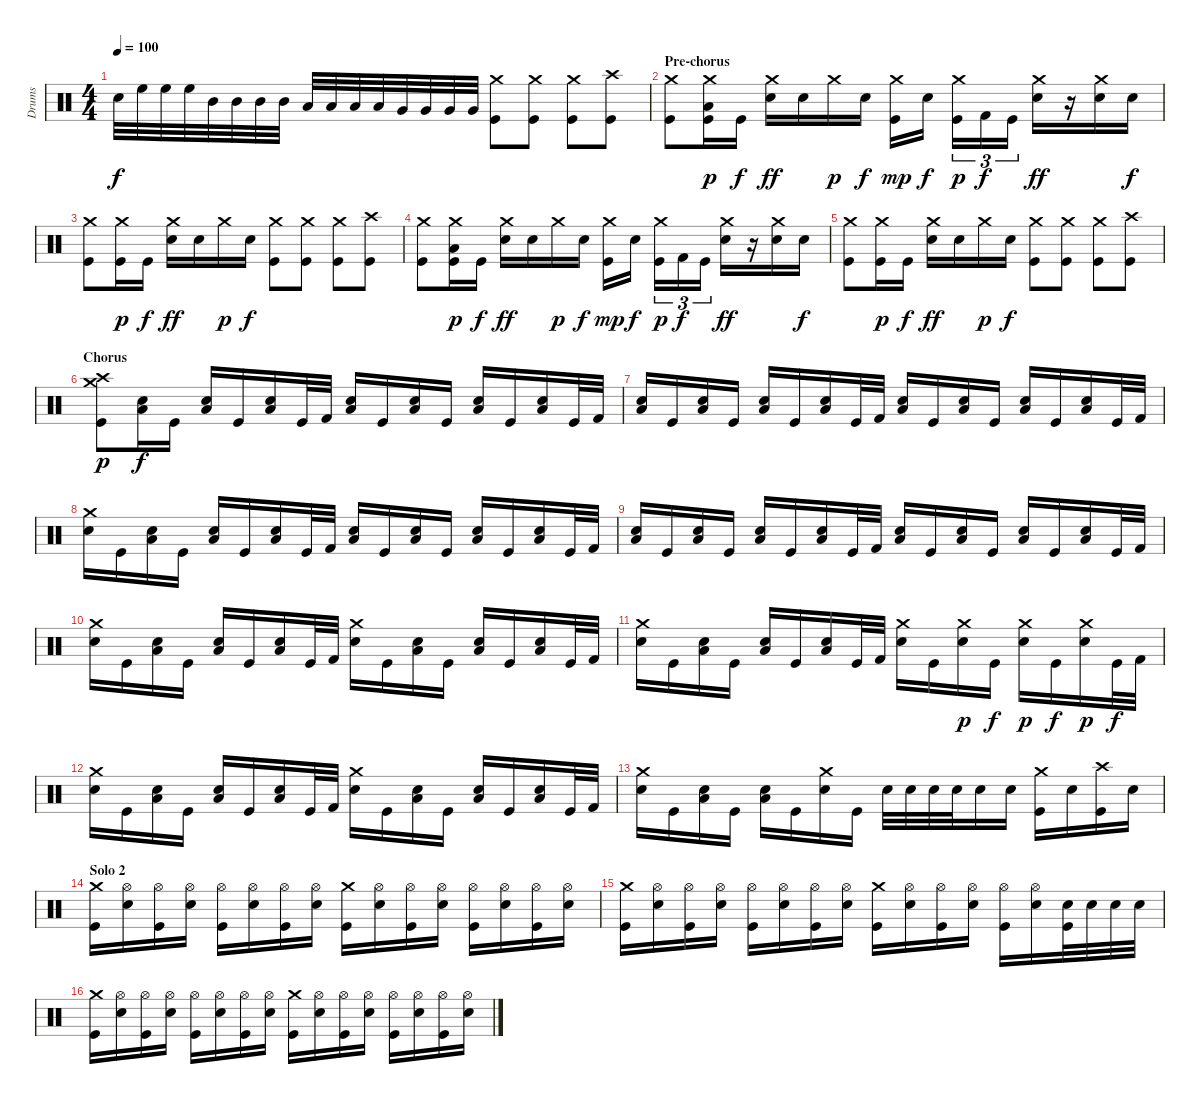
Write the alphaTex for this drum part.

\track ("Drums" "Drums") {instrument percussion}
\staff {score}
\articulation defaults
\ts (4 4)
\tempo 100
\clef neutral
\ks c "Electric Snare (hit)".32{dy f} "High Floor Tom (hit)".32 "High Floor Tom (hit)".32 "High Floor Tom (hit)".32 "Mid Tom (hit)".32 "Mid Tom (hit)".32 "Mid Tom (hit)".32 "Mid Tom (hit)".32 "Low Tom (hit)".32 "Low Tom (hit)".32 "Low Tom (hit)".32 "Low Tom (hit)".32 "Very Low Tom (hit)".32 "Very Low Tom (hit)".32 "Very Low Tom (hit)".32 "Very Low Tom (hit)".32
("Crash medium (hit)" "Kick (hit)").8 ("Crash medium (hit)" "Kick (hit)").8 ("Crash medium (hit)" "Kick (hit)").8 ("Crash high (hit)" "Kick (hit)").8 |
\section ("" "Pre-chorus")
("Crash medium (hit)" "Kick (hit)").8 ("Crash medium (hit)" "Low Tom (hit)" "Kick (hit)").16{dy p} "Kick (hit)".16{dy f} ("Crash medium (hit)" "Electric Snare (hit)").16{dy ff} "Electric Snare (hit)".16 "Crash medium (hit)".16{dy p} "Electric Snare (hit)".16{dy f} ("Crash medium (hit)" "Kick (hit)").16{dy mp} "Electric Snare (hit)".16{dy f} ("Crash medium (hit)" "Kick (hit)").16{tu (3 2) dy p} "Kick (hit) 2".16{tu (3 2) dy f} "Kick (hit)".16{tu (3 2)} ("Crash medium (hit)" "Electric Snare (hit)").16{dy ff} r.16 ("Crash medium (hit)" "Electric Snare (hit)").16 "Electric Snare (hit)".16{dy f} |
("Crash medium (hit)" "Kick (hit)").8 ("Crash medium (hit)" "Kick (hit)").16{dy p} "Kick (hit)".16{dy f} ("Crash medium (hit)" "Electric Snare (hit)").16{dy ff} "Electric Snare (hit)".16 "Crash medium (hit)".16{dy p} "Electric Snare (hit)".16{dy f} ("Crash medium (hit)" "Kick (hit)").8 ("Crash medium (hit)" "Kick (hit)").8 ("Crash medium (hit)" "Kick (hit)").8 ("Crash high (hit)" "Kick (hit)").8 |
("Crash medium (hit)" "Kick (hit)").8 ("Crash medium (hit)" "Low Tom (hit)" "Kick (hit)").16{dy p} "Kick (hit)".16{dy f} ("Crash medium (hit)" "Electric Snare (hit)").16{dy ff} "Electric Snare (hit)".16 "Crash medium (hit)".16{dy p} "Electric Snare (hit)".16{dy f} ("Crash medium (hit)" "Kick (hit)").16{dy mp} "Electric Snare (hit)".16{dy f} ("Crash medium (hit)" "Kick (hit)").16{tu (3 2) dy p} "Kick (hit) 2".16{tu (3 2) dy f} "Kick (hit)".16{tu (3 2)} ("Crash medium (hit)" "Electric Snare (hit)").16{dy ff} r.16 ("Crash medium (hit)" "Electric Snare (hit)").16 "Electric Snare (hit)".16{dy f} |
("Crash medium (hit)" "Kick (hit)").8 ("Crash medium (hit)" "Kick (hit)").16{dy p} "Kick (hit)".16{dy f} ("Crash medium (hit)" "Electric Snare (hit)").16{dy ff} "Electric Snare (hit)".16 "Crash medium (hit)".16{dy p} "Electric Snare (hit)".16{dy f} ("Crash medium (hit)" "Kick (hit)").8 ("Crash medium (hit)" "Kick (hit)").8 ("Crash medium (hit)" "Kick (hit)").8 ("Crash high (hit)" "Kick (hit)").8 |
\section ("" "Chorus")
("Crash high (hit)" "Crash medium (hit)" "Kick (hit)").8{dy p} ("Electric Snare (hit)" "Low Tom (hit)").16{dy f} "Kick (hit)".16 ("Electric Snare (hit)" "Low Tom (hit)").16 "Kick (hit)".16 ("Electric Snare (hit)" "Low Tom (hit)").16 "Kick (hit)".32 "Kick (hit) 2".32 ("Electric Snare (hit)" "Low Tom (hit)").16 "Kick (hit)".16 ("Electric Snare (hit)" "Low Tom (hit)").16 "Kick (hit)".16 ("Electric Snare (hit)" "Low Tom (hit)").16 "Kick (hit)".16 ("Electric Snare (hit)" "Low Tom (hit)").16 "Kick (hit)".32 "Kick (hit) 2".32 |
("Electric Snare (hit)" "Low Tom (hit)").16 "Kick (hit)".16 ("Electric Snare (hit)" "Low Tom (hit)").16 "Kick (hit)".16 ("Electric Snare (hit)" "Low Tom (hit)").16 "Kick (hit)".16 ("Electric Snare (hit)" "Low Tom (hit)").16 "Kick (hit)".32 "Kick (hit) 2".32 ("Electric Snare (hit)" "Low Tom (hit)").16 "Kick (hit)".16 ("Electric Snare (hit)" "Low Tom (hit)").16 "Kick (hit)".16 ("Electric Snare (hit)" "Low Tom (hit)").16 "Kick (hit)".16 ("Electric Snare (hit)" "Low Tom (hit)").16 "Kick (hit)".32 "Kick (hit) 2".32 |
("Crash medium (hit)" "Electric Snare (hit)").16 "Kick (hit)".16 ("Electric Snare (hit)" "Low Tom (hit)").16 "Kick (hit)".16 ("Electric Snare (hit)" "Low Tom (hit)").16 "Kick (hit)".16 ("Electric Snare (hit)" "Low Tom (hit)").16 "Kick (hit)".32 "Kick (hit) 2".32 ("Electric Snare (hit)" "Low Tom (hit)").16 "Kick (hit)".16 ("Electric Snare (hit)" "Low Tom (hit)").16 "Kick (hit)".16 ("Electric Snare (hit)" "Low Tom (hit)").16 "Kick (hit)".16 ("Electric Snare (hit)" "Low Tom (hit)").16 "Kick (hit)".32 "Kick (hit) 2".32 |
("Electric Snare (hit)" "Low Tom (hit)").16 "Kick (hit)".16 ("Electric Snare (hit)" "Low Tom (hit)").16 "Kick (hit)".16 ("Electric Snare (hit)" "Low Tom (hit)").16 "Kick (hit)".16 ("Electric Snare (hit)" "Low Tom (hit)").16 "Kick (hit)".32 "Kick (hit) 2".32 ("Electric Snare (hit)" "Low Tom (hit)").16 "Kick (hit)".16 ("Electric Snare (hit)" "Low Tom (hit)").16 "Kick (hit)".16 ("Electric Snare (hit)" "Low Tom (hit)").16 "Kick (hit)".16 ("Electric Snare (hit)" "Low Tom (hit)").16 "Kick (hit)".32 "Kick (hit) 2".32 |
("Crash medium (hit)" "Electric Snare (hit)").16 "Kick (hit)".16 ("Electric Snare (hit)" "Low Tom (hit)").16 "Kick (hit)".16 ("Electric Snare (hit)" "Low Tom (hit)").16 "Kick (hit)".16 ("Electric Snare (hit)" "Low Tom (hit)").16 "Kick (hit)".32 "Kick (hit) 2".32 ("Crash medium (hit)" "Electric Snare (hit)").16 "Kick (hit)".16 ("Electric Snare (hit)" "Low Tom (hit)").16 "Kick (hit)".16 ("Electric Snare (hit)" "Low Tom (hit)").16 "Kick (hit)".16 ("Electric Snare (hit)" "Low Tom (hit)").16 "Kick (hit)".32 "Kick (hit) 2".32 |
("Crash medium (hit)" "Electric Snare (hit)").16 "Kick (hit)".16 ("Electric Snare (hit)" "Low Tom (hit)").16 "Kick (hit)".16 ("Electric Snare (hit)" "Low Tom (hit)").16 "Kick (hit)".16 ("Electric Snare (hit)" "Low Tom (hit)").16 "Kick (hit)".32 "Kick (hit) 2".32 ("Crash medium (hit)" "Electric Snare (hit)").16 "Kick (hit)".16 ("Crash medium (hit)" "Electric Snare (hit)").16{dy p} "Kick (hit)".16{dy f} ("Crash medium (hit)" "Electric Snare (hit)").16{dy p} "Kick (hit)".16{dy f} ("Crash medium (hit)" "Electric Snare (hit)").16{dy p} "Kick (hit)".32{dy f} "Kick (hit) 2".32 |
("Crash medium (hit)" "Electric Snare (hit)").16 "Kick (hit)".16 ("Electric Snare (hit)" "Low Tom (hit)").16 "Kick (hit)".16 ("Electric Snare (hit)" "Low Tom (hit)").16 "Kick (hit)".16 ("Electric Snare (hit)" "Low Tom (hit)").16 "Kick (hit)".32 "Kick (hit) 2".32 ("Crash medium (hit)" "Electric Snare (hit)").16 "Kick (hit)".16 ("Electric Snare (hit)" "Low Tom (hit)").16 "Kick (hit)".16 ("Electric Snare (hit)" "Low Tom (hit)").16 "Kick (hit)".16 ("Electric Snare (hit)" "Low Tom (hit)").16 "Kick (hit)".32 "Kick (hit) 2".32 |
("Crash medium (hit)" "Electric Snare (hit)").16 "Kick (hit)".16 ("Electric Snare (hit)" "Low Tom (hit)").16 "Kick (hit)".16 ("Electric Snare (hit)" "Low Tom (hit)").16 "Kick (hit)".16 ("Crash medium (hit)" "Electric Snare (hit)").16 "Kick (hit)".16 "Electric Snare (hit)".32 "Electric Snare (hit)".32 "Electric Snare (hit)".32 "Electric Snare (hit)".32 "Electric Snare (hit)".16 "Electric Snare (hit)".16 ("Crash medium (hit)" "Kick (hit)").16 "Electric Snare (hit)".16 ("Crash high (hit)" "Kick (hit)").16 "Electric Snare (hit)".16 |
\section ("" "Solo 2")
("Crash medium (hit)" "Kick (hit)").16 ("Hi-Hat (open)" "Electric Snare (hit)").16 ("Hi-Hat (open)" "Kick (hit)").16 ("Hi-Hat (open)" "Electric Snare (hit)").16 ("Hi-Hat (open)" "Kick (hit)").16 ("Hi-Hat (open)" "Electric Snare (hit)").16 ("Hi-Hat (open)" "Kick (hit)").16 ("Hi-Hat (open)" "Electric Snare (hit)").16 ("Crash medium (hit)" "Kick (hit)").16 ("Hi-Hat (open)" "Electric Snare (hit)").16 ("Hi-Hat (open)" "Kick (hit)").16 ("Hi-Hat (open)" "Electric Snare (hit)").16 ("Hi-Hat (open)" "Kick (hit)").16 ("Hi-Hat (open)" "Electric Snare (hit)").16 ("Hi-Hat (open)" "Kick (hit)").16 ("Hi-Hat (open)" "Electric Snare (hit)").16 |
("Crash medium (hit)" "Kick (hit)").16 ("Hi-Hat (open)" "Electric Snare (hit)").16 ("Hi-Hat (open)" "Kick (hit)").16 ("Hi-Hat (open)" "Electric Snare (hit)").16 ("Hi-Hat (open)" "Kick (hit)").16 ("Hi-Hat (open)" "Electric Snare (hit)").16 ("Hi-Hat (open)" "Kick (hit)").16 ("Hi-Hat (open)" "Electric Snare (hit)").16 ("Crash medium (hit)" "Kick (hit)").16 ("Hi-Hat (open)" "Electric Snare (hit)").16 ("Hi-Hat (open)" "Kick (hit)").16 ("Hi-Hat (open)" "Electric Snare (hit)").16 ("Hi-Hat (open)" "Kick (hit)").16 ("Hi-Hat (open)" "Electric Snare (hit)").16 ("Electric Snare (hit)" "Kick (hit)").32 "Electric Snare (hit)".32 "Electric Snare (hit)".32 "Electric Snare (hit)".32 |
("Crash medium (hit)" "Kick (hit)").16 ("Hi-Hat (open)" "Electric Snare (hit)").16 ("Hi-Hat (open)" "Kick (hit)").16 ("Hi-Hat (open)" "Electric Snare (hit)").16 ("Hi-Hat (open)" "Kick (hit)").16 ("Hi-Hat (open)" "Electric Snare (hit)").16 ("Hi-Hat (open)" "Kick (hit)").16 ("Hi-Hat (open)" "Electric Snare (hit)").16 ("Crash medium (hit)" "Kick (hit)").16 ("Hi-Hat (open)" "Electric Snare (hit)").16 ("Hi-Hat (open)" "Kick (hit)").16 ("Hi-Hat (open)" "Electric Snare (hit)").16 ("Hi-Hat (open)" "Kick (hit)").16 ("Hi-Hat (open)" "Electric Snare (hit)").16 ("Hi-Hat (open)" "Kick (hit)").16 ("Hi-Hat (open)" "Electric Snare (hit)").16
